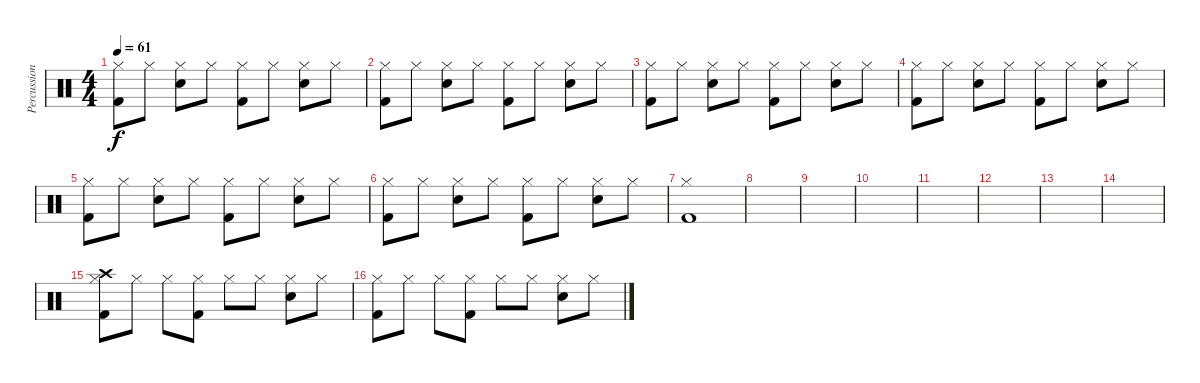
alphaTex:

\track ("Percussion" "Percussion") {instrument percussion}
\staff {score}
\articulation defaults
\ts (4 4)
\tempo 61
\clef neutral
\ks c
("Hi-Hat (closed)" "Kick (hit) 2").8{dy f} "Hi-Hat (closed)".8 ("Hi-Hat (closed)" "Electric Snare (hit)").8 "Hi-Hat (closed)".8 ("Hi-Hat (closed)" "Kick (hit) 2").8 "Hi-Hat (closed)".8 ("Hi-Hat (closed)" "Electric Snare (hit)").8 "Hi-Hat (closed)".8 |
("Hi-Hat (closed)" "Kick (hit) 2").8 "Hi-Hat (closed)".8 ("Hi-Hat (closed)" "Electric Snare (hit)").8 "Hi-Hat (closed)".8 ("Hi-Hat (closed)" "Kick (hit) 2").8 "Hi-Hat (closed)".8 ("Hi-Hat (closed)" "Electric Snare (hit)").8 "Hi-Hat (closed)".8 |
("Hi-Hat (closed)" "Kick (hit) 2").8 "Hi-Hat (closed)".8 ("Hi-Hat (closed)" "Electric Snare (hit)").8 "Hi-Hat (closed)".8 ("Hi-Hat (closed)" "Kick (hit) 2").8 "Hi-Hat (closed)".8 ("Hi-Hat (closed)" "Electric Snare (hit)").8 "Hi-Hat (closed)".8 |
("Hi-Hat (closed)" "Kick (hit) 2").8 "Hi-Hat (closed)".8 ("Hi-Hat (closed)" "Electric Snare (hit)").8 "Hi-Hat (closed)".8 ("Hi-Hat (closed)" "Kick (hit) 2").8 "Hi-Hat (closed)".8 ("Hi-Hat (closed)" "Electric Snare (hit)").8 "Hi-Hat (closed)".8 |
("Hi-Hat (closed)" "Kick (hit) 2").8 "Hi-Hat (closed)".8 ("Hi-Hat (closed)" "Electric Snare (hit)").8 "Hi-Hat (closed)".8 ("Hi-Hat (closed)" "Kick (hit) 2").8 "Hi-Hat (closed)".8 ("Hi-Hat (closed)" "Electric Snare (hit)").8 "Hi-Hat (closed)".8 |
("Hi-Hat (closed)" "Kick (hit) 2").8 "Hi-Hat (closed)".8 ("Hi-Hat (closed)" "Electric Snare (hit)").8 "Hi-Hat (closed)".8 ("Hi-Hat (closed)" "Kick (hit) 2").8 "Hi-Hat (closed)".8 ("Hi-Hat (closed)" "Electric Snare (hit)").8 "Hi-Hat (closed)".8 |
("Hi-Hat (closed)" "Kick (hit) 2").1 |
|
|
|
|
|
|
|
("Crash high (hit)" "Hi-Hat (closed)" "Kick (hit) 2").8 "Hi-Hat (closed)".8 "Hi-Hat (closed)".8 ("Hi-Hat (closed)" "Kick (hit) 2").8 "Hi-Hat (closed)".8 "Hi-Hat (closed)".8 ("Hi-Hat (closed)" "Snare (hit) 2").8 "Hi-Hat (closed)".8 |
("Hi-Hat (closed)" "Kick (hit) 2").8 "Hi-Hat (closed)".8 "Hi-Hat (closed)".8 ("Hi-Hat (closed)" "Kick (hit) 2").8 "Hi-Hat (closed)".8 "Hi-Hat (closed)".8 ("Hi-Hat (closed)" "Snare (hit) 2").8 "Hi-Hat (closed)".8
